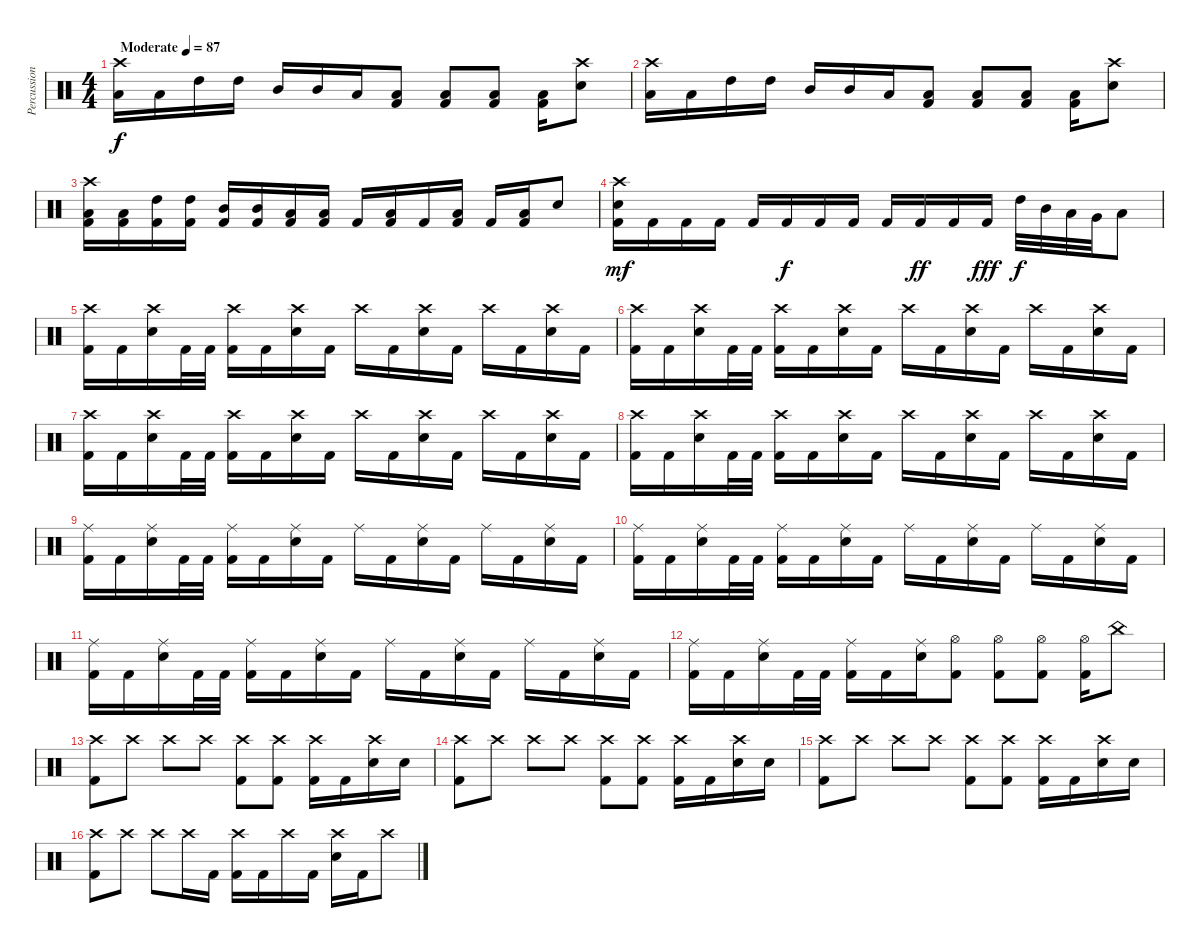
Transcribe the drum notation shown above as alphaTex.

\track ("Percussion" "Percussion") {instrument percussion}
\staff {score}
\articulation defaults
\ts (4 4)
\tempo (87 "Moderate")
\clef neutral
\ks c
("Crash high (hit)" "Low Tom (hit)").16{dy f} "Low Tom (hit)".16 "High Tom (hit)".16 "High Tom (hit)".16 "Mid Tom (hit)".16 "Mid Tom (hit)".16 "Low Tom (hit)".16 ("Low Tom (hit)" "Kick (hit) 2").8 ("Low Tom (hit)" "Kick (hit) 2").8 ("Low Tom (hit)" "Kick (hit) 2").8 ("Low Tom (hit)" "Kick (hit) 2").16 ("Crash high (hit)" "Electric Snare (hit)").8 |
("Crash high (hit)" "Low Tom (hit)").16 "Low Tom (hit)".16 "High Tom (hit)".16 "High Tom (hit)".16 "Mid Tom (hit)".16 "Mid Tom (hit)".16 "Low Tom (hit)".16 ("Low Tom (hit)" "Kick (hit) 2").8 ("Low Tom (hit)" "Kick (hit) 2").8 ("Low Tom (hit)" "Kick (hit) 2").8 ("Low Tom (hit)" "Kick (hit) 2").16 ("Crash high (hit)" "Electric Snare (hit)").8 |
("Crash high (hit)" "Low Tom (hit)" "Kick (hit) 2").16 ("Low Tom (hit)" "Kick (hit) 2").16 ("High Tom (hit)" "Kick (hit) 2").16 ("High Tom (hit)" "Kick (hit) 2").16 ("Mid Tom (hit)" "Kick (hit) 2").16 ("Mid Tom (hit)" "Kick (hit) 2").16 ("Low Tom (hit)" "Kick (hit) 2").16 ("Low Tom (hit)" "Kick (hit) 2").16 "Kick (hit) 2".16 ("Low Tom (hit)" "Kick (hit) 2").16 "Kick (hit) 2".16 ("Low Tom (hit)" "Kick (hit) 2").16 "Kick (hit) 2".16 ("Low Tom (hit)" "Kick (hit) 2").16 "Electric Snare (hit)".8 |
("Crash high (hit)" "Electric Snare (hit)" "Kick (hit) 2").16{dy mf} "Kick (hit) 2".16 "Kick (hit) 2".16 "Kick (hit) 2".16 "Kick (hit) 2".16 "Kick (hit) 2".16{dy f} "Kick (hit) 2".16 "Kick (hit) 2".16 "Kick (hit) 2".16 "Kick (hit) 2".16{dy ff} "Kick (hit) 2".16 "Kick (hit) 2".16{dy fff} "High Tom (hit)".32{dy f} "Mid Tom (hit)".32 "Low Tom (hit)".32 "Very Low Tom (hit)".32 "Low Floor Tom (hit)".8 |
("Crash high (hit)" "Kick (hit) 2").16 "Kick (hit) 2".16 ("Crash high (hit)" "Electric Snare (hit)").16 "Kick (hit) 2".32 "Kick (hit) 2".32 ("Crash high (hit)" "Kick (hit) 2").16 "Kick (hit) 2".16 ("Crash high (hit)" "Electric Snare (hit)").16 "Kick (hit) 2".16 "Crash high (hit)".16 "Kick (hit) 2".16 ("Crash high (hit)" "Electric Snare (hit)").16 "Kick (hit) 2".16 "Crash high (hit)".16 "Kick (hit) 2".16 ("Crash high (hit)" "Electric Snare (hit)").16 "Kick (hit) 2".16 |
("Crash high (hit)" "Kick (hit) 2").16 "Kick (hit) 2".16 ("Crash high (hit)" "Electric Snare (hit)").16 "Kick (hit) 2".32 "Kick (hit) 2".32 ("Crash high (hit)" "Kick (hit) 2").16 "Kick (hit) 2".16 ("Crash high (hit)" "Electric Snare (hit)").16 "Kick (hit) 2".16 "Crash high (hit)".16 "Kick (hit) 2".16 ("Crash high (hit)" "Electric Snare (hit)").16 "Kick (hit) 2".16 "Crash high (hit)".16 "Kick (hit) 2".16 ("Crash high (hit)" "Electric Snare (hit)").16 "Kick (hit) 2".16 |
("Crash high (hit)" "Kick (hit) 2").16 "Kick (hit) 2".16 ("Crash high (hit)" "Electric Snare (hit)").16 "Kick (hit) 2".32 "Kick (hit) 2".32 ("Crash high (hit)" "Kick (hit) 2").16 "Kick (hit) 2".16 ("Crash high (hit)" "Electric Snare (hit)").16 "Kick (hit) 2".16 "Crash high (hit)".16 "Kick (hit) 2".16 ("Crash high (hit)" "Electric Snare (hit)").16 "Kick (hit) 2".16 "Crash high (hit)".16 "Kick (hit) 2".16 ("Crash high (hit)" "Electric Snare (hit)").16 "Kick (hit) 2".16 |
("Crash high (hit)" "Kick (hit) 2").16 "Kick (hit) 2".16 ("Crash high (hit)" "Electric Snare (hit)").16 "Kick (hit) 2".32 "Kick (hit) 2".32 ("Crash high (hit)" "Kick (hit) 2").16 "Kick (hit) 2".16 ("Crash high (hit)" "Electric Snare (hit)").16 "Kick (hit) 2".16 "Crash high (hit)".16 "Kick (hit) 2".16 ("Crash high (hit)" "Electric Snare (hit)").16 "Kick (hit) 2".16 "Crash high (hit)".16 "Kick (hit) 2".16 ("Crash high (hit)" "Electric Snare (hit)").16 "Kick (hit) 2".16 |
("Ride (middle)" "Kick (hit) 2").16 "Kick (hit) 2".16 ("Ride (middle)" "Electric Snare (hit)").16 "Kick (hit) 2".32 "Kick (hit) 2".32 ("Ride (middle)" "Kick (hit) 2").16 "Kick (hit) 2".16 ("Ride (middle)" "Electric Snare (hit)").16 "Kick (hit) 2".16 "Ride (middle)".16 "Kick (hit) 2".16 ("Ride (middle)" "Electric Snare (hit)").16 "Kick (hit) 2".16 "Ride (middle)".16 "Kick (hit) 2".16 ("Ride (middle)" "Electric Snare (hit)").16 "Kick (hit) 2".16 |
("Ride (middle)" "Kick (hit) 2").16 "Kick (hit) 2".16 ("Ride (middle)" "Electric Snare (hit)").16 "Kick (hit) 2".32 "Kick (hit) 2".32 ("Ride (middle)" "Kick (hit) 2").16 "Kick (hit) 2".16 ("Ride (middle)" "Electric Snare (hit)").16 "Kick (hit) 2".16 "Ride (middle)".16 "Kick (hit) 2".16 ("Ride (middle)" "Electric Snare (hit)").16 "Kick (hit) 2".16 "Ride (middle)".16 "Kick (hit) 2".16 ("Ride (middle)" "Electric Snare (hit)").16 "Kick (hit) 2".16 |
("Ride (middle)" "Kick (hit) 2").16 "Kick (hit) 2".16 ("Ride (middle)" "Electric Snare (hit)").16 "Kick (hit) 2".32 "Kick (hit) 2".32 ("Ride (middle)" "Kick (hit) 2").16 "Kick (hit) 2".16 ("Ride (middle)" "Electric Snare (hit)").16 "Kick (hit) 2".16 "Ride (middle)".16 "Kick (hit) 2".16 ("Ride (middle)" "Electric Snare (hit)").16 "Kick (hit) 2".16 "Ride (middle)".16 "Kick (hit) 2".16 ("Ride (middle)" "Electric Snare (hit)").16 "Kick (hit) 2".16 |
("Ride (middle)" "Kick (hit) 2").16 "Kick (hit) 2".16 ("Ride (middle)" "Electric Snare (hit)").16 "Kick (hit) 2".32 "Kick (hit) 2".32 ("Ride (middle)" "Kick (hit) 2").16 "Kick (hit) 2".16 ("Ride (middle)" "Electric Snare (hit)").16 ("Hi-Hat (open)" "Kick (hit) 2").8 ("Hi-Hat (open)" "Kick (hit) 2").8 ("Hi-Hat (open)" "Kick (hit) 2").8 ("Hi-Hat (open)" "Kick (hit) 2").16 "China (hit)".8 |
("Crash high (hit)" "Kick (hit) 2").8 "Crash high (hit)".8 "Crash high (hit)".8 "Crash high (hit)".8 ("Crash high (hit)" "Kick (hit) 2").8 ("Crash high (hit)" "Kick (hit) 2").8 ("Crash high (hit)" "Kick (hit) 2").16 "Kick (hit) 2".16 ("Crash high (hit)" "Electric Snare (hit)").16 "Electric Snare (hit)".16 |
("Crash high (hit)" "Kick (hit) 2").8 "Crash high (hit)".8 "Crash high (hit)".8 "Crash high (hit)".8 ("Crash high (hit)" "Kick (hit) 2").8 ("Crash high (hit)" "Kick (hit) 2").8 ("Crash high (hit)" "Kick (hit) 2").16 "Kick (hit) 2".16 ("Crash high (hit)" "Electric Snare (hit)").16 "Electric Snare (hit)".16 |
("Crash high (hit)" "Kick (hit) 2").8 "Crash high (hit)".8 "Crash high (hit)".8 "Crash high (hit)".8 ("Crash high (hit)" "Kick (hit) 2").8 ("Crash high (hit)" "Kick (hit) 2").8 ("Crash high (hit)" "Kick (hit) 2").16 "Kick (hit) 2".16 ("Crash high (hit)" "Electric Snare (hit)").16 "Electric Snare (hit)".16 |
("Crash high (hit)" "Kick (hit) 2").8 "Crash high (hit)".8 "Crash high (hit)".8 "Crash high (hit)".16 "Kick (hit) 2".16 ("Crash high (hit)" "Kick (hit) 2").16 "Kick (hit) 2".16 "Crash high (hit)".16 "Kick (hit) 2".16 ("Crash high (hit)" "Electric Snare (hit)").16 "Kick (hit) 2".16 "Crash high (hit)".8
